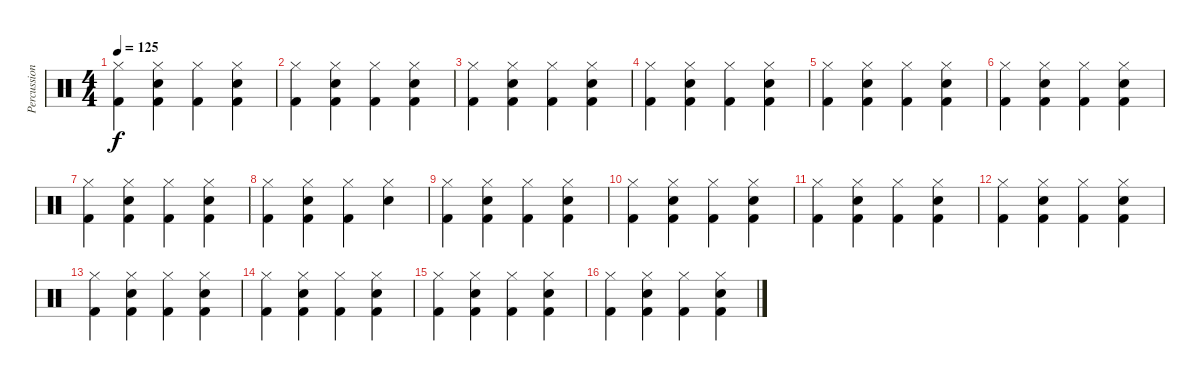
\track ("Percussion" "Percussion") {instrument percussion}
\staff {score}
\articulation defaults
\ts (4 4)
\tempo 125
\clef neutral
\ks c
("Hi-Hat (closed)" "Kick (hit) 2").4{dy f} ("Hi-Hat (closed)" "Hand Clap (hit)" "Kick (hit) 2").4 ("Hi-Hat (closed)" "Kick (hit) 2").4 ("Hi-Hat (closed)" "Hand Clap (hit)" "Kick (hit) 2").4 |
("Hi-Hat (closed)" "Kick (hit) 2").4 ("Hi-Hat (closed)" "Hand Clap (hit)" "Kick (hit) 2").4 ("Hi-Hat (closed)" "Kick (hit) 2").4 ("Hi-Hat (closed)" "Hand Clap (hit)" "Kick (hit) 2").4 |
("Hi-Hat (closed)" "Kick (hit) 2").4 ("Hi-Hat (closed)" "Hand Clap (hit)" "Kick (hit) 2").4 ("Hi-Hat (closed)" "Kick (hit) 2").4 ("Hi-Hat (closed)" "Hand Clap (hit)" "Kick (hit) 2").4 |
("Hi-Hat (closed)" "Kick (hit) 2").4 ("Hi-Hat (closed)" "Hand Clap (hit)" "Kick (hit) 2").4 ("Hi-Hat (closed)" "Kick (hit) 2").4 ("Hi-Hat (closed)" "Hand Clap (hit)" "Kick (hit) 2").4 |
("Hi-Hat (closed)" "Kick (hit) 2").4 ("Hi-Hat (closed)" "Hand Clap (hit)" "Kick (hit) 2").4 ("Hi-Hat (closed)" "Kick (hit) 2").4 ("Hi-Hat (closed)" "Hand Clap (hit)" "Kick (hit) 2").4 |
("Hi-Hat (closed)" "Kick (hit) 2").4 ("Hi-Hat (closed)" "Hand Clap (hit)" "Kick (hit) 2").4 ("Hi-Hat (closed)" "Kick (hit) 2").4 ("Hi-Hat (closed)" "Hand Clap (hit)" "Kick (hit) 2").4 |
("Hi-Hat (closed)" "Kick (hit) 2").4 ("Hi-Hat (closed)" "Hand Clap (hit)" "Kick (hit) 2").4 ("Hi-Hat (closed)" "Kick (hit) 2").4 ("Hi-Hat (closed)" "Hand Clap (hit)" "Kick (hit) 2").4 |
("Hi-Hat (closed)" "Kick (hit) 2").4 ("Hi-Hat (closed)" "Hand Clap (hit)" "Kick (hit) 2").4 ("Hi-Hat (closed)" "Kick (hit) 2").4 ("Hi-Hat (closed)" "Hand Clap (hit)").4 |
("Hi-Hat (closed)" "Kick (hit) 2").4 ("Hi-Hat (closed)" "Hand Clap (hit)" "Kick (hit) 2").4 ("Hi-Hat (closed)" "Kick (hit) 2").4 ("Hi-Hat (closed)" "Hand Clap (hit)" "Kick (hit) 2").4 |
("Hi-Hat (closed)" "Kick (hit) 2").4 ("Hi-Hat (closed)" "Hand Clap (hit)" "Kick (hit) 2").4 ("Hi-Hat (closed)" "Kick (hit) 2").4 ("Hi-Hat (closed)" "Hand Clap (hit)" "Kick (hit) 2").4 |
("Hi-Hat (closed)" "Kick (hit) 2").4 ("Hi-Hat (closed)" "Hand Clap (hit)" "Kick (hit) 2").4 ("Hi-Hat (closed)" "Kick (hit) 2").4 ("Hi-Hat (closed)" "Hand Clap (hit)" "Kick (hit) 2").4 |
("Hi-Hat (closed)" "Kick (hit) 2").4 ("Hi-Hat (closed)" "Hand Clap (hit)" "Kick (hit) 2").4 ("Hi-Hat (closed)" "Kick (hit) 2").4 ("Hi-Hat (closed)" "Hand Clap (hit)" "Kick (hit) 2").4 |
("Hi-Hat (closed)" "Kick (hit) 2").4 ("Hi-Hat (closed)" "Hand Clap (hit)" "Kick (hit) 2").4 ("Hi-Hat (closed)" "Kick (hit) 2").4 ("Hi-Hat (closed)" "Hand Clap (hit)" "Kick (hit) 2").4 |
("Hi-Hat (closed)" "Kick (hit) 2").4 ("Hi-Hat (closed)" "Hand Clap (hit)" "Kick (hit) 2").4 ("Hi-Hat (closed)" "Kick (hit) 2").4 ("Hi-Hat (closed)" "Hand Clap (hit)" "Kick (hit) 2").4 |
("Hi-Hat (closed)" "Kick (hit) 2").4 ("Hi-Hat (closed)" "Hand Clap (hit)" "Kick (hit) 2").4 ("Hi-Hat (closed)" "Kick (hit) 2").4 ("Hi-Hat (closed)" "Hand Clap (hit)" "Kick (hit) 2").4 |
("Hi-Hat (closed)" "Kick (hit) 2").4 ("Hi-Hat (closed)" "Hand Clap (hit)" "Kick (hit) 2").4 ("Hi-Hat (closed)" "Kick (hit) 2").4 ("Hi-Hat (closed)" "Hand Clap (hit)" "Kick (hit) 2").4
